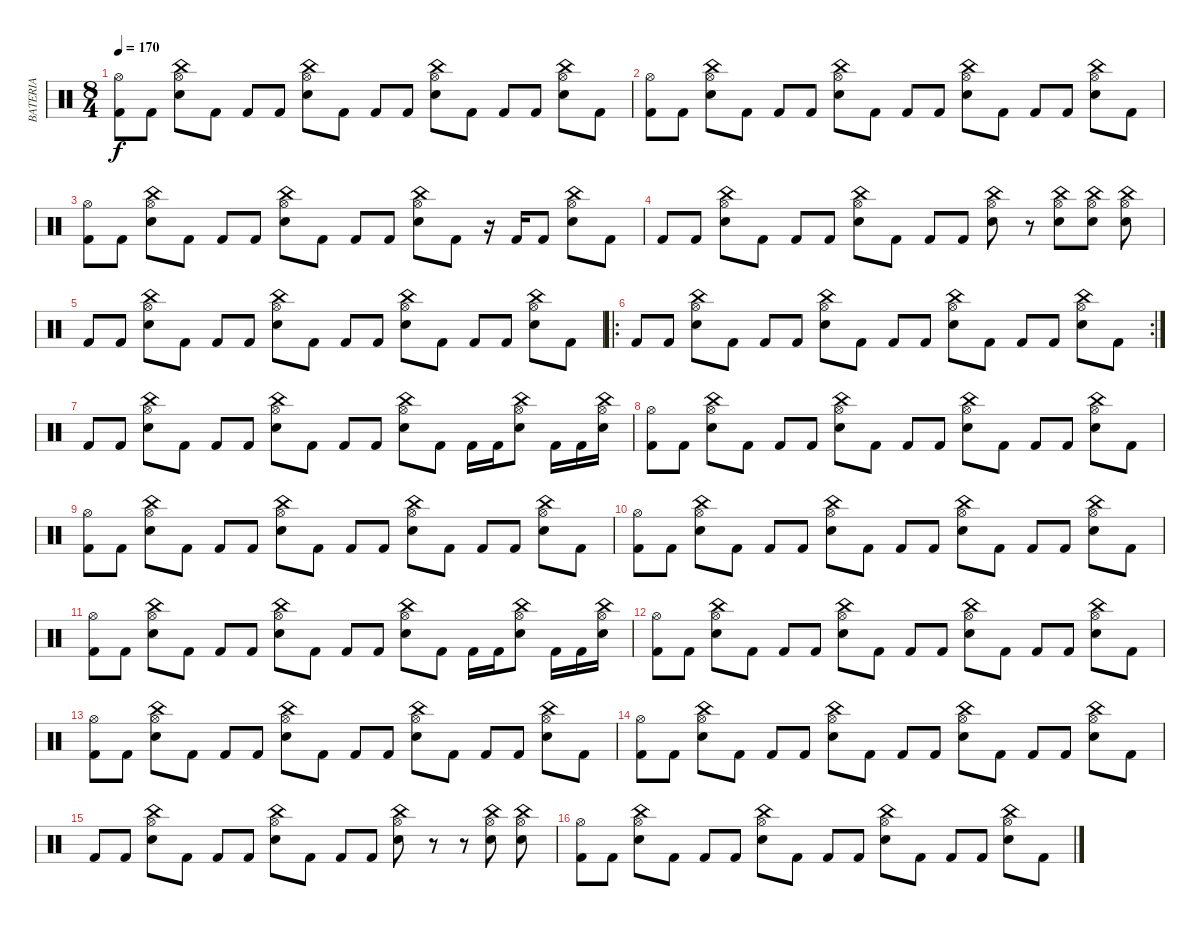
\track ("BATERIA" "BATERIA") {instrument percussion}
\staff {score}
\articulation defaults
\ts (8 4)
\tempo 170
\clef neutral
\ks c
("Kick (hit) 2" "Hi-Hat (open)").8{dy f} "Kick (hit) 2".8 ("Snare (hit) 2" "Hi-Hat (open)" "China (hit)").8 "Kick (hit) 2".8 "Kick (hit) 2".8 "Kick (hit) 2".8 ("Snare (hit) 2" "Hi-Hat (open)" "China (hit)").8 "Kick (hit) 2".8 "Kick (hit) 2".8 "Kick (hit) 2".8 ("Snare (hit) 2" "Hi-Hat (open)" "China (hit)").8 "Kick (hit) 2".8 "Kick (hit) 2".8 "Kick (hit) 2".8 ("Snare (hit) 2" "Hi-Hat (open)" "China (hit)").8 "Kick (hit) 2".8 |
("Kick (hit) 2" "Hi-Hat (open)").8 "Kick (hit) 2".8 ("Snare (hit) 2" "Hi-Hat (open)" "China (hit)").8 "Kick (hit) 2".8 "Kick (hit) 2".8 "Kick (hit) 2".8 ("Snare (hit) 2" "Hi-Hat (open)" "China (hit)").8 "Kick (hit) 2".8 "Kick (hit) 2".8 "Kick (hit) 2".8 ("Snare (hit) 2" "Hi-Hat (open)" "China (hit)").8 "Kick (hit) 2".8 "Kick (hit) 2".8 "Kick (hit) 2".8 ("Snare (hit) 2" "Hi-Hat (open)" "China (hit)").8 "Kick (hit) 2".8 |
("Kick (hit) 2" "Hi-Hat (open)").8 "Kick (hit) 2".8 ("Snare (hit) 2" "Hi-Hat (open)" "China (hit)").8 "Kick (hit) 2".8 "Kick (hit) 2".8 "Kick (hit) 2".8 ("Snare (hit) 2" "Hi-Hat (open)" "China (hit)").8 "Kick (hit) 2".8 "Kick (hit) 2".8 "Kick (hit) 2".8 ("Snare (hit) 2" "Hi-Hat (open)" "China (hit)").8 "Kick (hit) 2".8 r.16 "Kick (hit) 2".16 "Kick (hit) 2".8 ("Snare (hit) 2" "Hi-Hat (open)" "China (hit)").8 "Kick (hit) 2".8 |
"Kick (hit) 2".8 "Kick (hit) 2".8 ("Snare (hit) 2" "Hi-Hat (open)" "China (hit)").8 "Kick (hit) 2".8 "Kick (hit) 2".8 "Kick (hit) 2".8 ("Snare (hit) 2" "Hi-Hat (open)" "China (hit)").8 "Kick (hit) 2".8 "Kick (hit) 2".8 "Kick (hit) 2".8 ("Snare (hit) 2" "Hi-Hat (open)" "China (hit)").8 r.8 ("Snare (hit) 2" "Hi-Hat (open)" "China (hit)").8 ("Snare (hit) 2" "Hi-Hat (open)" "China (hit)").8 ("Snare (hit) 2" "Hi-Hat (open)" "China (hit)").8 |
"Kick (hit) 2".8 "Kick (hit) 2".8 ("Snare (hit) 2" "Hi-Hat (open)" "China (hit)").8 "Kick (hit) 2".8 "Kick (hit) 2".8 "Kick (hit) 2".8 ("Snare (hit) 2" "Hi-Hat (open)" "China (hit)").8 "Kick (hit) 2".8 "Kick (hit) 2".8 "Kick (hit) 2".8 ("Snare (hit) 2" "Hi-Hat (open)" "China (hit)").8 "Kick (hit) 2".8 "Kick (hit) 2".8 "Kick (hit) 2".8 ("Snare (hit) 2" "Hi-Hat (open)" "China (hit)").8 "Kick (hit) 2".8 |
\ro
\rc 2 "Kick (hit) 2".8 "Kick (hit) 2".8
("Snare (hit) 2" "Hi-Hat (open)" "China (hit)").8 "Kick (hit) 2".8 "Kick (hit) 2".8 "Kick (hit) 2".8 ("Snare (hit) 2" "Hi-Hat (open)" "China (hit)").8 "Kick (hit) 2".8 "Kick (hit) 2".8 "Kick (hit) 2".8 ("Snare (hit) 2" "Hi-Hat (open)" "China (hit)").8 "Kick (hit) 2".8 "Kick (hit) 2".8 "Kick (hit) 2".8 ("Snare (hit) 2" "Hi-Hat (open)" "China (hit)").8 "Kick (hit) 2".8 |
"Kick (hit) 2".8 "Kick (hit) 2".8 ("Snare (hit) 2" "Hi-Hat (open)" "China (hit)").8 "Kick (hit) 2".8 "Kick (hit) 2".8 "Kick (hit) 2".8 ("Snare (hit) 2" "Hi-Hat (open)" "China (hit)").8 "Kick (hit) 2".8 "Kick (hit) 2".8 "Kick (hit) 2".8 ("Snare (hit) 2" "Hi-Hat (open)" "China (hit)").8 "Kick (hit) 2".8 "Kick (hit) 2".16 "Kick (hit) 2".16 ("Snare (hit) 2" "Hi-Hat (open)" "China (hit)").8 "Kick (hit) 2".16 "Kick (hit) 2".16 ("Snare (hit) 2" "China (hit)" "Hi-Hat (open)").16 |
("Kick (hit) 2" "Hi-Hat (open)").8 "Kick (hit) 2".8 ("Snare (hit) 2" "Hi-Hat (open)" "China (hit)").8 "Kick (hit) 2".8 "Kick (hit) 2".8 "Kick (hit) 2".8 ("Snare (hit) 2" "Hi-Hat (open)" "China (hit)").8 "Kick (hit) 2".8 "Kick (hit) 2".8 "Kick (hit) 2".8 ("Snare (hit) 2" "Hi-Hat (open)" "China (hit)").8 "Kick (hit) 2".8 "Kick (hit) 2".8 "Kick (hit) 2".8 ("Snare (hit) 2" "Hi-Hat (open)" "China (hit)").8 "Kick (hit) 2".8 |
("Kick (hit) 2" "Hi-Hat (open)").8 "Kick (hit) 2".8 ("Snare (hit) 2" "Hi-Hat (open)" "China (hit)").8 "Kick (hit) 2".8 "Kick (hit) 2".8 "Kick (hit) 2".8 ("Snare (hit) 2" "Hi-Hat (open)" "China (hit)").8 "Kick (hit) 2".8 "Kick (hit) 2".8 "Kick (hit) 2".8 ("Snare (hit) 2" "Hi-Hat (open)" "China (hit)").8 "Kick (hit) 2".8 "Kick (hit) 2".8 "Kick (hit) 2".8 ("Snare (hit) 2" "Hi-Hat (open)" "China (hit)").8 "Kick (hit) 2".8 |
("Kick (hit) 2" "Hi-Hat (open)").8 "Kick (hit) 2".8 ("Snare (hit) 2" "Hi-Hat (open)" "China (hit)").8 "Kick (hit) 2".8 "Kick (hit) 2".8 "Kick (hit) 2".8 ("Snare (hit) 2" "Hi-Hat (open)" "China (hit)").8 "Kick (hit) 2".8 "Kick (hit) 2".8 "Kick (hit) 2".8 ("Snare (hit) 2" "Hi-Hat (open)" "China (hit)").8 "Kick (hit) 2".8 "Kick (hit) 2".8 "Kick (hit) 2".8 ("Snare (hit) 2" "Hi-Hat (open)" "China (hit)").8 "Kick (hit) 2".8 |
("Kick (hit) 2" "Hi-Hat (open)").8 "Kick (hit) 2".8 ("Snare (hit) 2" "Hi-Hat (open)" "China (hit)").8 "Kick (hit) 2".8 "Kick (hit) 2".8 "Kick (hit) 2".8 ("Snare (hit) 2" "Hi-Hat (open)" "China (hit)").8 "Kick (hit) 2".8 "Kick (hit) 2".8 "Kick (hit) 2".8 ("Snare (hit) 2" "Hi-Hat (open)" "China (hit)").8 "Kick (hit) 2".8 "Kick (hit) 2".16 "Kick (hit) 2".16 ("Snare (hit) 2" "Hi-Hat (open)" "China (hit)").8 "Kick (hit) 2".16 "Kick (hit) 2".16 ("Snare (hit) 2" "China (hit)" "Hi-Hat (open)").16 |
("Kick (hit) 2" "Hi-Hat (open)").8 "Kick (hit) 2".8 ("Snare (hit) 2" "Hi-Hat (open)" "China (hit)").8 "Kick (hit) 2".8 "Kick (hit) 2".8 "Kick (hit) 2".8 ("Snare (hit) 2" "Hi-Hat (open)" "China (hit)").8 "Kick (hit) 2".8 "Kick (hit) 2".8 "Kick (hit) 2".8 ("Snare (hit) 2" "Hi-Hat (open)" "China (hit)").8 "Kick (hit) 2".8 "Kick (hit) 2".8 "Kick (hit) 2".8 ("Snare (hit) 2" "Hi-Hat (open)" "China (hit)").8 "Kick (hit) 2".8 |
("Kick (hit) 2" "Hi-Hat (open)").8 "Kick (hit) 2".8 ("Snare (hit) 2" "Hi-Hat (open)" "China (hit)").8 "Kick (hit) 2".8 "Kick (hit) 2".8 "Kick (hit) 2".8 ("Snare (hit) 2" "Hi-Hat (open)" "China (hit)").8 "Kick (hit) 2".8 "Kick (hit) 2".8 "Kick (hit) 2".8 ("Snare (hit) 2" "Hi-Hat (open)" "China (hit)").8 "Kick (hit) 2".8 "Kick (hit) 2".8 "Kick (hit) 2".8 ("Snare (hit) 2" "Hi-Hat (open)" "China (hit)").8 "Kick (hit) 2".8 |
("Kick (hit) 2" "Hi-Hat (open)").8 "Kick (hit) 2".8 ("Snare (hit) 2" "Hi-Hat (open)" "China (hit)").8 "Kick (hit) 2".8 "Kick (hit) 2".8 "Kick (hit) 2".8 ("Snare (hit) 2" "Hi-Hat (open)" "China (hit)").8 "Kick (hit) 2".8 "Kick (hit) 2".8 "Kick (hit) 2".8 ("Snare (hit) 2" "Hi-Hat (open)" "China (hit)").8 "Kick (hit) 2".8 "Kick (hit) 2".8 "Kick (hit) 2".8 ("Snare (hit) 2" "Hi-Hat (open)" "China (hit)").8 "Kick (hit) 2".8 |
"Kick (hit) 2".8 "Kick (hit) 2".8 ("Snare (hit) 2" "Hi-Hat (open)" "China (hit)").8 "Kick (hit) 2".8 "Kick (hit) 2".8 "Kick (hit) 2".8 ("Snare (hit) 2" "Hi-Hat (open)" "China (hit)").8 "Kick (hit) 2".8 "Kick (hit) 2".8 "Kick (hit) 2".8 ("Snare (hit) 2" "Hi-Hat (open)" "China (hit)").8 r.8 r.8 ("Snare (hit) 2" "Hi-Hat (open)" "China (hit)").8 ("Snare (hit) 2" "Hi-Hat (open)" "China (hit)").8 |
("Kick (hit) 2" "Hi-Hat (open)").8 "Kick (hit) 2".8 ("Snare (hit) 2" "Hi-Hat (open)" "China (hit)").8 "Kick (hit) 2".8 "Kick (hit) 2".8 "Kick (hit) 2".8 ("Snare (hit) 2" "Hi-Hat (open)" "China (hit)").8 "Kick (hit) 2".8 "Kick (hit) 2".8 "Kick (hit) 2".8 ("Snare (hit) 2" "Hi-Hat (open)" "China (hit)").8 "Kick (hit) 2".8 "Kick (hit) 2".8 "Kick (hit) 2".8 ("Snare (hit) 2" "Hi-Hat (open)" "China (hit)").8 "Kick (hit) 2".8
